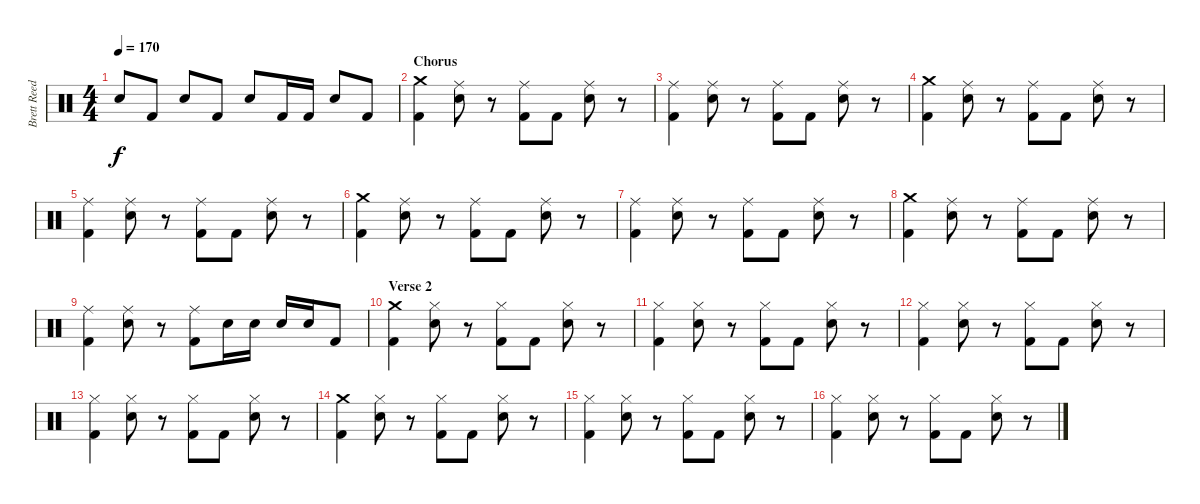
\track ("Brett Reed" "Brett Reed") {instrument percussion}
\staff {score}
\articulation defaults
\ts (4 4)
\tempo 170
\clef neutral
\ks c "Snare (hit) 2".8{dy f} "Kick (hit) 2".8 "Snare (hit) 2".8 "Kick (hit) 2".8 "Snare (hit) 2".8 "Kick (hit) 2".16 "Kick (hit) 2".16 "Snare (hit) 2".8 "Kick (hit) 2".8
|
\section ("" "Chorus")
("Crash medium (hit)" "Kick (hit) 2").4 ("Ride (middle)" "Snare (hit) 2").8 r.8 ("Ride (middle)" "Kick (hit) 2").8 "Kick (hit) 2".8 ("Ride (middle)" "Snare (hit) 2").8 r.8 |
("Ride (middle)" "Kick (hit) 2").4 ("Ride (middle)" "Snare (hit) 2").8 r.8 ("Ride (middle)" "Kick (hit) 2").8 "Kick (hit) 2".8 ("Ride (middle)" "Snare (hit) 2").8 r.8 |
("Crash medium (hit)" "Kick (hit) 2").4 ("Ride (middle)" "Snare (hit) 2").8 r.8 ("Ride (middle)" "Kick (hit) 2").8 "Kick (hit) 2".8 ("Ride (middle)" "Snare (hit) 2").8 r.8 |
("Ride (middle)" "Kick (hit) 2").4 ("Ride (middle)" "Snare (hit) 2").8 r.8 ("Ride (middle)" "Kick (hit) 2").8 "Kick (hit) 2".8 ("Ride (middle)" "Snare (hit) 2").8 r.8 |
("Crash medium (hit)" "Kick (hit) 2").4 ("Ride (middle)" "Snare (hit) 2").8 r.8 ("Ride (middle)" "Kick (hit) 2").8 "Kick (hit) 2".8 ("Ride (middle)" "Snare (hit) 2").8 r.8 |
("Ride (middle)" "Kick (hit) 2").4 ("Ride (middle)" "Snare (hit) 2").8 r.8 ("Ride (middle)" "Kick (hit) 2").8 "Kick (hit) 2".8 ("Ride (middle)" "Snare (hit) 2").8 r.8 |
("Crash medium (hit)" "Kick (hit) 2").4 ("Ride (middle)" "Snare (hit) 2").8 r.8 ("Ride (middle)" "Kick (hit) 2").8 "Kick (hit) 2".8 ("Ride (middle)" "Snare (hit) 2").8 r.8 |
("Ride (middle)" "Kick (hit) 2").4 ("Ride (middle)" "Snare (hit) 2").8 r.8 ("Ride (middle)" "Kick (hit) 2").8 "Snare (hit) 2".16 "Snare (hit) 2".16 "Snare (hit) 2".16 "Snare (hit) 2".16 "Kick (hit) 2".8 |
\section ("" "Verse 2")
("Crash medium (hit)" "Kick (hit) 2").4 ("Hi-Hat (closed)" "Snare (hit) 2").8 r.8 ("Hi-Hat (closed)" "Kick (hit) 2").8 "Kick (hit) 2".8 ("Hi-Hat (closed)" "Snare (hit) 2").8 r.8 |
("Hi-Hat (closed)" "Kick (hit) 2").4 ("Hi-Hat (closed)" "Snare (hit) 2").8 r.8 ("Hi-Hat (closed)" "Kick (hit) 2").8 "Kick (hit) 2".8 ("Hi-Hat (closed)" "Snare (hit) 2").8 r.8 |
("Hi-Hat (closed)" "Kick (hit) 2").4 ("Hi-Hat (closed)" "Snare (hit) 2").8 r.8 ("Hi-Hat (closed)" "Kick (hit) 2").8 "Kick (hit) 2".8 ("Hi-Hat (closed)" "Snare (hit) 2").8 r.8 |
("Hi-Hat (closed)" "Kick (hit) 2").4 ("Hi-Hat (closed)" "Snare (hit) 2").8 r.8 ("Hi-Hat (closed)" "Kick (hit) 2").8 "Kick (hit) 2".8 ("Hi-Hat (closed)" "Snare (hit) 2").8 r.8 |
("Crash medium (hit)" "Kick (hit) 2").4 ("Hi-Hat (closed)" "Snare (hit) 2").8 r.8 ("Hi-Hat (closed)" "Kick (hit) 2").8 "Kick (hit) 2".8 ("Hi-Hat (closed)" "Snare (hit) 2").8 r.8 |
("Hi-Hat (closed)" "Kick (hit) 2").4 ("Hi-Hat (closed)" "Snare (hit) 2").8 r.8 ("Hi-Hat (closed)" "Kick (hit) 2").8 "Kick (hit) 2".8 ("Hi-Hat (closed)" "Snare (hit) 2").8 r.8 |
("Hi-Hat (closed)" "Kick (hit) 2").4 ("Hi-Hat (closed)" "Snare (hit) 2").8 r.8 ("Hi-Hat (closed)" "Kick (hit) 2").8 "Kick (hit) 2".8 ("Hi-Hat (closed)" "Snare (hit) 2").8 r.8
